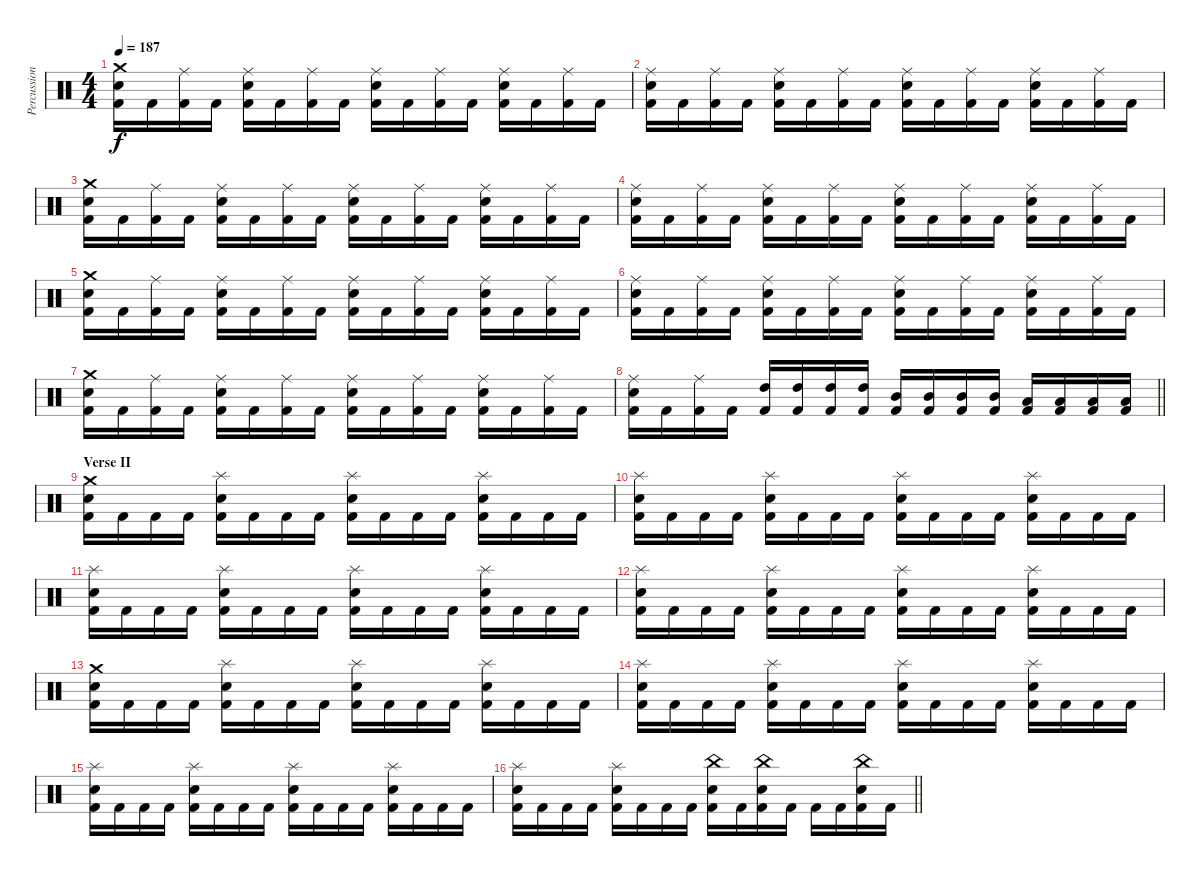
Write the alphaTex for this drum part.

\track ("Percussion" "Percussion") {instrument percussion}
\staff {score}
\articulation defaults
\ts (4 4)
\section ("" "")
\tempo 187
\clef neutral
\ks c
("Kick (hit) 2" "Snare (hit) 2" "Crash medium (hit)").16{dy f} "Kick (hit) 2".16 ("Kick (hit) 2" "Ride (middle)").16 "Kick (hit) 2".16 ("Kick (hit) 2" "Snare (hit) 2" "Ride (middle)").16 "Kick (hit) 2".16 ("Kick (hit) 2" "Ride (middle)").16 "Kick (hit) 2".16 ("Kick (hit) 2" "Snare (hit) 2" "Ride (middle)").16 "Kick (hit) 2".16 ("Kick (hit) 2" "Ride (middle)").16 "Kick (hit) 2".16 ("Kick (hit) 2" "Snare (hit) 2" "Ride (middle)").16 "Kick (hit) 2".16 ("Kick (hit) 2" "Ride (middle)").16 "Kick (hit) 2".16 |
("Kick (hit) 2" "Snare (hit) 2" "Ride (middle)").16 "Kick (hit) 2".16 ("Kick (hit) 2" "Ride (middle)").16 "Kick (hit) 2".16 ("Kick (hit) 2" "Snare (hit) 2" "Ride (middle)").16 "Kick (hit) 2".16 ("Kick (hit) 2" "Ride (middle)").16 "Kick (hit) 2".16 ("Kick (hit) 2" "Snare (hit) 2" "Ride (middle)").16 "Kick (hit) 2".16 ("Kick (hit) 2" "Ride (middle)").16 "Kick (hit) 2".16 ("Kick (hit) 2" "Snare (hit) 2" "Ride (middle)").16 "Kick (hit) 2".16 ("Kick (hit) 2" "Ride (middle)").16 "Kick (hit) 2".16 |
("Kick (hit) 2" "Snare (hit) 2" "Crash medium (hit)").16 "Kick (hit) 2".16 ("Kick (hit) 2" "Ride (middle)").16 "Kick (hit) 2".16 ("Kick (hit) 2" "Snare (hit) 2" "Ride (middle)").16 "Kick (hit) 2".16 ("Kick (hit) 2" "Ride (middle)").16 "Kick (hit) 2".16 ("Kick (hit) 2" "Snare (hit) 2" "Ride (middle)").16 "Kick (hit) 2".16 ("Kick (hit) 2" "Ride (middle)").16 "Kick (hit) 2".16 ("Kick (hit) 2" "Snare (hit) 2" "Ride (middle)").16 "Kick (hit) 2".16 ("Kick (hit) 2" "Ride (middle)").16 "Kick (hit) 2".16 |
("Kick (hit) 2" "Snare (hit) 2" "Ride (middle)").16 "Kick (hit) 2".16 ("Kick (hit) 2" "Ride (middle)").16 "Kick (hit) 2".16 ("Kick (hit) 2" "Snare (hit) 2" "Ride (middle)").16 "Kick (hit) 2".16 ("Kick (hit) 2" "Ride (middle)").16 "Kick (hit) 2".16 ("Kick (hit) 2" "Snare (hit) 2" "Ride (middle)").16 "Kick (hit) 2".16 ("Kick (hit) 2" "Ride (middle)").16 "Kick (hit) 2".16 ("Kick (hit) 2" "Snare (hit) 2" "Ride (middle)").16 "Kick (hit) 2".16 ("Kick (hit) 2" "Ride (middle)").16 "Kick (hit) 2".16 |
("Kick (hit) 2" "Snare (hit) 2" "Crash medium (hit)").16 "Kick (hit) 2".16 ("Kick (hit) 2" "Ride (middle)").16 "Kick (hit) 2".16 ("Kick (hit) 2" "Snare (hit) 2" "Ride (middle)").16 "Kick (hit) 2".16 ("Kick (hit) 2" "Ride (middle)").16 "Kick (hit) 2".16 ("Kick (hit) 2" "Snare (hit) 2" "Ride (middle)").16 "Kick (hit) 2".16 ("Kick (hit) 2" "Ride (middle)").16 "Kick (hit) 2".16 ("Kick (hit) 2" "Snare (hit) 2" "Ride (middle)").16 "Kick (hit) 2".16 ("Kick (hit) 2" "Ride (middle)").16 "Kick (hit) 2".16 |
("Kick (hit) 2" "Snare (hit) 2" "Ride (middle)").16 "Kick (hit) 2".16 ("Kick (hit) 2" "Ride (middle)").16 "Kick (hit) 2".16 ("Kick (hit) 2" "Snare (hit) 2" "Ride (middle)").16 "Kick (hit) 2".16 ("Kick (hit) 2" "Ride (middle)").16 "Kick (hit) 2".16 ("Kick (hit) 2" "Snare (hit) 2" "Ride (middle)").16 "Kick (hit) 2".16 ("Kick (hit) 2" "Ride (middle)").16 "Kick (hit) 2".16 ("Kick (hit) 2" "Snare (hit) 2" "Ride (middle)").16 "Kick (hit) 2".16 ("Kick (hit) 2" "Ride (middle)").16 "Kick (hit) 2".16 |
("Kick (hit) 2" "Snare (hit) 2" "Crash medium (hit)").16 "Kick (hit) 2".16 ("Kick (hit) 2" "Ride (middle)").16 "Kick (hit) 2".16 ("Kick (hit) 2" "Snare (hit) 2" "Ride (middle)").16 "Kick (hit) 2".16 ("Kick (hit) 2" "Ride (middle)").16 "Kick (hit) 2".16 ("Kick (hit) 2" "Snare (hit) 2" "Ride (middle)").16 "Kick (hit) 2".16 ("Kick (hit) 2" "Ride (middle)").16 "Kick (hit) 2".16 ("Kick (hit) 2" "Snare (hit) 2" "Ride (middle)").16 "Kick (hit) 2".16 ("Kick (hit) 2" "Ride (middle)").16 "Kick (hit) 2".16 |
\barLineRight lightlight
("Kick (hit) 2" "Snare (hit) 2" "Ride (middle)").16 "Kick (hit) 2".16 ("Kick (hit) 2" "Ride (middle)").16 "Kick (hit) 2".16 ("Kick (hit) 2" "High Tom (hit)").16 ("Kick (hit) 2" "High Tom (hit)").16 ("Kick (hit) 2" "High Tom (hit)").16 ("Kick (hit) 2" "High Tom (hit)").16 ("Kick (hit) 2" "Mid Tom (hit)").16 ("Kick (hit) 2" "Mid Tom (hit)").16 ("Kick (hit) 2" "Mid Tom (hit)").16 ("Kick (hit) 2" "Mid Tom (hit)").16 ("Kick (hit) 2" "Low Tom (hit)").16 ("Kick (hit) 2" "Low Tom (hit)").16 ("Kick (hit) 2" "Low Tom (hit)").16 ("Kick (hit) 2" "Low Tom (hit)").16 |
\section ("" "Verse II")
("Kick (hit) 2" "Snare (hit) 2" "Crash medium (hit)").16 "Kick (hit) 2".16 "Kick (hit) 2".16 "Kick (hit) 2".16 ("Kick (hit) 2" "Snare (hit) 2" "Splash (hit)").16 "Kick (hit) 2".16 "Kick (hit) 2".16 "Kick (hit) 2".16 ("Kick (hit) 2" "Snare (hit) 2" "Splash (hit)").16 "Kick (hit) 2".16 "Kick (hit) 2".16 "Kick (hit) 2".16 ("Kick (hit) 2" "Snare (hit) 2" "Splash (hit)").16 "Kick (hit) 2".16 "Kick (hit) 2".16 "Kick (hit) 2".16 |
("Kick (hit) 2" "Snare (hit) 2" "Splash (hit)").16 "Kick (hit) 2".16 "Kick (hit) 2".16 "Kick (hit) 2".16 ("Kick (hit) 2" "Snare (hit) 2" "Splash (hit)").16 "Kick (hit) 2".16 "Kick (hit) 2".16 "Kick (hit) 2".16 ("Kick (hit) 2" "Snare (hit) 2" "Splash (hit)").16 "Kick (hit) 2".16 "Kick (hit) 2".16 "Kick (hit) 2".16 ("Kick (hit) 2" "Snare (hit) 2" "Splash (hit)").16 "Kick (hit) 2".16 "Kick (hit) 2".16 "Kick (hit) 2".16 |
("Kick (hit) 2" "Snare (hit) 2" "Splash (hit)").16 "Kick (hit) 2".16 "Kick (hit) 2".16 "Kick (hit) 2".16 ("Kick (hit) 2" "Snare (hit) 2" "Splash (hit)").16 "Kick (hit) 2".16 "Kick (hit) 2".16 "Kick (hit) 2".16 ("Kick (hit) 2" "Snare (hit) 2" "Splash (hit)").16 "Kick (hit) 2".16 "Kick (hit) 2".16 "Kick (hit) 2".16 ("Kick (hit) 2" "Snare (hit) 2" "Splash (hit)").16 "Kick (hit) 2".16 "Kick (hit) 2".16 "Kick (hit) 2".16 |
("Kick (hit) 2" "Snare (hit) 2" "Splash (hit)").16 "Kick (hit) 2".16 "Kick (hit) 2".16 "Kick (hit) 2".16 ("Kick (hit) 2" "Snare (hit) 2" "Splash (hit)").16 "Kick (hit) 2".16 "Kick (hit) 2".16 "Kick (hit) 2".16 ("Kick (hit) 2" "Snare (hit) 2" "Splash (hit)").16 "Kick (hit) 2".16 "Kick (hit) 2".16 "Kick (hit) 2".16 ("Kick (hit) 2" "Snare (hit) 2" "Splash (hit)").16 "Kick (hit) 2".16 "Kick (hit) 2".16 "Kick (hit) 2".16 |
("Kick (hit) 2" "Snare (hit) 2" "Crash medium (hit)").16 "Kick (hit) 2".16 "Kick (hit) 2".16 "Kick (hit) 2".16 ("Kick (hit) 2" "Snare (hit) 2" "Splash (hit)").16 "Kick (hit) 2".16 "Kick (hit) 2".16 "Kick (hit) 2".16 ("Kick (hit) 2" "Snare (hit) 2" "Splash (hit)").16 "Kick (hit) 2".16 "Kick (hit) 2".16 "Kick (hit) 2".16 ("Kick (hit) 2" "Snare (hit) 2" "Splash (hit)").16 "Kick (hit) 2".16 "Kick (hit) 2".16 "Kick (hit) 2".16 |
("Kick (hit) 2" "Snare (hit) 2" "Splash (hit)").16 "Kick (hit) 2".16 "Kick (hit) 2".16 "Kick (hit) 2".16 ("Kick (hit) 2" "Snare (hit) 2" "Splash (hit)").16 "Kick (hit) 2".16 "Kick (hit) 2".16 "Kick (hit) 2".16 ("Kick (hit) 2" "Snare (hit) 2" "Splash (hit)").16 "Kick (hit) 2".16 "Kick (hit) 2".16 "Kick (hit) 2".16 ("Kick (hit) 2" "Snare (hit) 2" "Splash (hit)").16 "Kick (hit) 2".16 "Kick (hit) 2".16 "Kick (hit) 2".16 |
("Kick (hit) 2" "Snare (hit) 2" "Splash (hit)").16 "Kick (hit) 2".16 "Kick (hit) 2".16 "Kick (hit) 2".16 ("Kick (hit) 2" "Snare (hit) 2" "Splash (hit)").16 "Kick (hit) 2".16 "Kick (hit) 2".16 "Kick (hit) 2".16 ("Kick (hit) 2" "Snare (hit) 2" "Splash (hit)").16 "Kick (hit) 2".16 "Kick (hit) 2".16 "Kick (hit) 2".16 ("Kick (hit) 2" "Snare (hit) 2" "Splash (hit)").16 "Kick (hit) 2".16 "Kick (hit) 2".16 "Kick (hit) 2".16 |
\barLineRight lightlight
("Kick (hit) 2" "Snare (hit) 2" "Splash (hit)").16 "Kick (hit) 2".16 "Kick (hit) 2".16 "Kick (hit) 2".16 ("Kick (hit) 2" "Snare (hit) 2" "Splash (hit)").16 "Kick (hit) 2".16 "Kick (hit) 2".16 "Kick (hit) 2".16 ("Kick (hit) 2" "Snare (hit) 2" "China (hit)").16 "Kick (hit) 2".16 ("Kick (hit) 2" "Snare (hit) 2" "China (hit)").16 "Kick (hit) 2".16 "Kick (hit) 2".16 "Kick (hit) 2".16 ("Kick (hit) 2" "Snare (hit) 2" "China (hit)").16 "Kick (hit) 2".16
